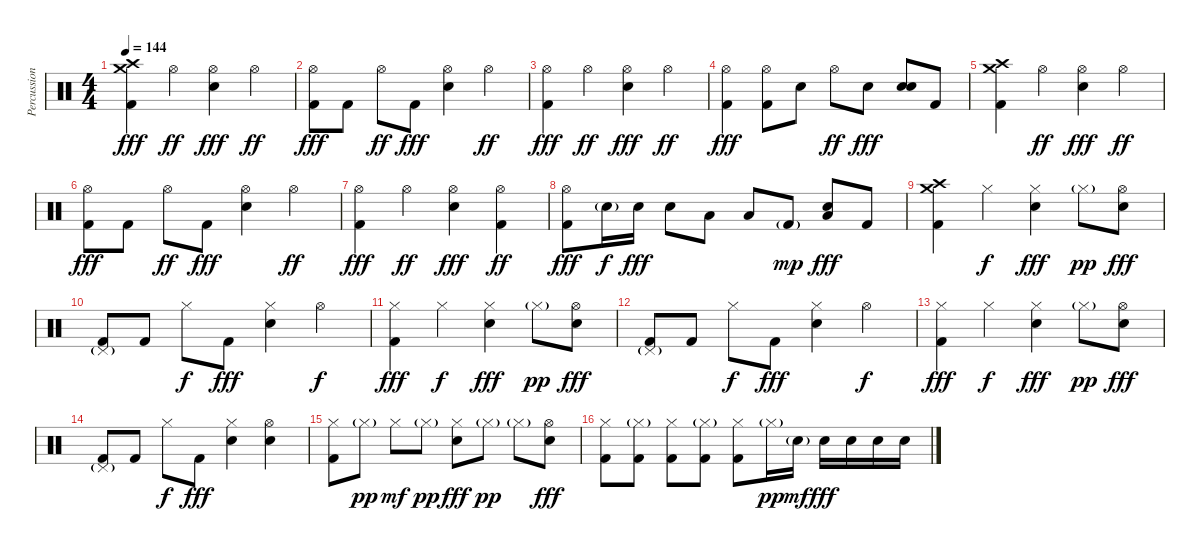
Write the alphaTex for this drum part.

\track ("Percussion" "Percussion") {instrument percussion}
\staff {score}
\articulation defaults
\ts (4 4)
\tempo 144
\clef neutral
\ks c
("Crash high (hit)" "Crash medium (hit)" "Kick (hit) 2").4{dy fff} "Hi-Hat (open)".4{dy ff} ("Hi-Hat (open)" "Electric Snare (hit)").4{dy fff} "Hi-Hat (open)".4{dy ff} |
("Hi-Hat (open)" "Kick (hit) 2").8{dy fff} "Kick (hit) 2".8 "Hi-Hat (open)".8{dy ff} "Kick (hit) 2".8{dy fff} ("Hi-Hat (open)" "Electric Snare (hit)").4 "Hi-Hat (open)".4{dy ff} |
("Hi-Hat (open)" "Kick (hit) 2").4{dy fff} "Hi-Hat (open)".4{dy ff} ("Hi-Hat (open)" "Electric Snare (hit)").4{dy fff} "Hi-Hat (open)".4{dy ff} |
("Hi-Hat (open)" "Kick (hit) 2").4{dy fff} ("Hi-Hat (open)" "Kick (hit) 2").8 "Electric Snare (hit)".8 "Hi-Hat (open)".8{dy ff} "Electric Snare (hit)".8{dy fff} ("Electric Snare (hit)" "Electric Snare (hit)").8{bd 480} "Kick (hit) 2".8 |
("Crash high (hit)" "Crash medium (hit)" "Kick (hit) 2").4 "Hi-Hat (open)".4{dy ff} ("Hi-Hat (open)" "Electric Snare (hit)").4{dy fff} "Hi-Hat (open)".4{dy ff} |
("Hi-Hat (open)" "Kick (hit) 2").8{dy fff} "Kick (hit) 2".8 "Hi-Hat (open)".8{dy ff} "Kick (hit) 2".8{dy fff} ("Hi-Hat (open)" "Electric Snare (hit)").4 "Hi-Hat (open)".4{dy ff} |
("Hi-Hat (open)" "Kick (hit) 2").4{dy fff} "Hi-Hat (open)".4{dy ff} ("Hi-Hat (open)" "Electric Snare (hit)").4{dy fff} ("Hi-Hat (open)" "Kick (hit) 2").4{dy ff} |
("Hi-Hat (open)" "Kick (hit) 2").8{dy fff} "Electric Snare (hit)"{g}.16{dy f} "Electric Snare (hit)".16{dy fff} "Electric Snare (hit)".8 "Low Tom (hit)".8 "Low Floor Tom (hit)".8 "Kick (hit) 2"{g}.8{dy mp} ("Electric Snare (hit)" "Low Floor Tom (hit)").8{dy fff} "Kick (hit) 2".8 |
("Crash high (hit)" "Crash medium (hit)" "Kick (hit) 2").4 "Hi-Hat (closed)".4{dy f} ("Hi-Hat (closed)" "Electric Snare (hit)").4{dy fff} "Hi-Hat (closed)"{g}.8{dy pp} ("Hi-Hat (open)" "Electric Snare (hit)").8{dy fff} |
("Pedal Hi-Hat (hit)"{g} "Kick (hit) 2").8 "Kick (hit) 2".8 "Hi-Hat (closed)".8{dy f} "Kick (hit) 2".8{dy fff} ("Hi-Hat (closed)" "Electric Snare (hit)").4 "Hi-Hat (open)".4{dy f} |
("Hi-Hat (closed)" "Kick (hit) 2").4{dy fff} "Hi-Hat (closed)".4{dy f} ("Hi-Hat (closed)" "Electric Snare (hit)").4{dy fff} "Hi-Hat (closed)"{g}.8{dy pp} ("Hi-Hat (open)" "Electric Snare (hit)").8{dy fff} |
("Pedal Hi-Hat (hit)"{g} "Kick (hit) 2").8 "Kick (hit) 2".8 "Hi-Hat (closed)".8{dy f} "Kick (hit) 2".8{dy fff} ("Hi-Hat (closed)" "Electric Snare (hit)").4 "Hi-Hat (open)".4{dy f} |
("Hi-Hat (closed)" "Kick (hit) 2").4{dy fff} "Hi-Hat (closed)".4{dy f} ("Hi-Hat (closed)" "Electric Snare (hit)").4{dy fff} "Hi-Hat (closed)"{g}.8{dy pp} ("Hi-Hat (open)" "Electric Snare (hit)").8{dy fff} |
("Pedal Hi-Hat (hit)"{g} "Kick (hit) 2").8 "Kick (hit) 2".8 "Hi-Hat (closed)".8{dy f} "Kick (hit) 2".8{dy fff} ("Hi-Hat (closed)" "Electric Snare (hit)").4 ("Hi-Hat (open)" "Electric Snare (hit)").4 |
("Hi-Hat (closed)" "Kick (hit) 2").8 "Hi-Hat (closed)"{g}.8{dy pp} "Hi-Hat (closed)".8{dy mf} "Hi-Hat (closed)"{g}.8{dy pp} ("Hi-Hat (closed)" "Electric Snare (hit)").8{dy fff} "Hi-Hat (closed)"{g}.8{dy pp} "Hi-Hat (closed)"{g}.8 ("Hi-Hat (open)" "Electric Snare (hit)").8{dy fff} |
("Hi-Hat (closed)" "Kick (hit) 2").8 ("Hi-Hat (closed)"{g} "Kick (hit) 2").8 ("Hi-Hat (closed)" "Kick (hit) 2").8 ("Hi-Hat (closed)"{g} "Kick (hit) 2").8 ("Hi-Hat (closed)" "Kick (hit) 2").8 "Hi-Hat (closed)"{g}.16{dy pp} "Electric Snare (hit)"{g}.16{dy mf} "Electric Snare (hit)".16{dy fff} "Electric Snare (hit)".16 "Electric Snare (hit)".16 "Electric Snare (hit)".16
